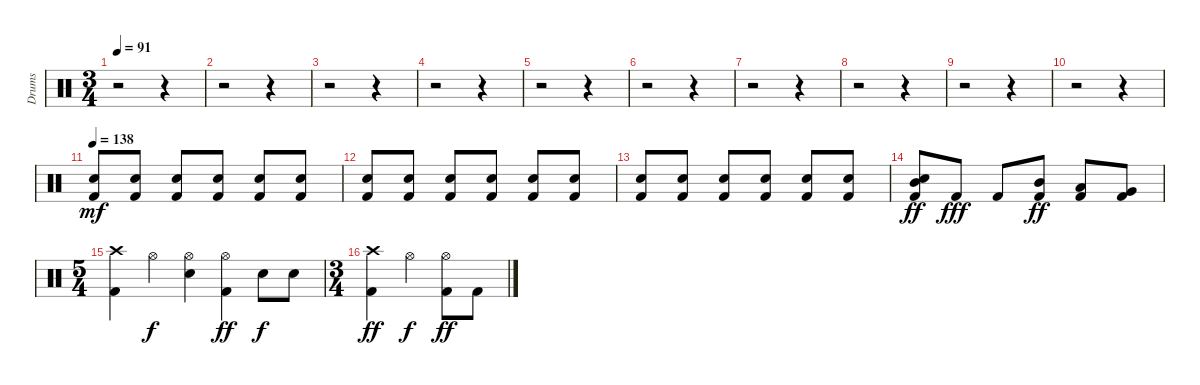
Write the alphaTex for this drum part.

\track ("Drums" "Drums") {instrument percussion}
\staff {score}
\articulation defaults
\ts (3 4)
\tempo 91
\clef neutral
\ks c
r.2{dy mf} r.4 |
r.2 r.4 |
r.2 r.4 |
r.2 r.4 |
r.2 r.4 |
r.2 r.4 |
r.2 r.4 |
r.2 r.4 |
r.2 r.4 |
r.2 r.4{volume 0} |
\tempo 138
("Kick (hit) 2" "Electric Snare (hit)").8{volume 13} ("Kick (hit) 2" "Electric Snare (hit)").8 ("Kick (hit) 2" "Electric Snare (hit)").8 ("Kick (hit) 2" "Electric Snare (hit)").8 ("Kick (hit) 2" "Electric Snare (hit)").8 ("Kick (hit) 2" "Electric Snare (hit)").8 |
("Kick (hit) 2" "Electric Snare (hit)").8 ("Kick (hit) 2" "Electric Snare (hit)").8 ("Kick (hit) 2" "Electric Snare (hit)").8 ("Kick (hit) 2" "Electric Snare (hit)").8 ("Kick (hit) 2" "Electric Snare (hit)").8 ("Kick (hit) 2" "Electric Snare (hit)").8 |
("Kick (hit) 2" "Electric Snare (hit)").8 ("Kick (hit) 2" "Electric Snare (hit)").8 ("Kick (hit) 2" "Electric Snare (hit)").8 ("Kick (hit) 2" "Electric Snare (hit)").8 ("Kick (hit) 2" "Electric Snare (hit)").8 ("Kick (hit) 2" "Electric Snare (hit)").8 |
("Kick (hit) 2" "Electric Snare (hit)" "Mid Tom (hit)").8{dy ff} "Kick (hit) 2".8{dy fff} "Kick (hit) 2".8 ("Kick (hit) 2" "Mid Tom (hit)").8{dy ff} ("Kick (hit) 2" "Low Tom (hit)").8 ("Kick (hit) 2" "Very Low Tom (hit)").8 |
\ts (5 4)
("Kick (hit) 2" "Crash high (hit)").4 "Hi-Hat (open)".4{dy f} ("Electric Snare (hit)" "Hi-Hat (open)").4 ("Kick (hit) 2" "Hi-Hat (open)").4{dy ff} "Electric Snare (hit)".8{dy f} "Electric Snare (hit)".8 |
\ts (3 4)
("Kick (hit) 2" "Crash high (hit)").4{dy ff} "Hi-Hat (open)".4{dy f} ("Kick (hit) 2" "Hi-Hat (open)").8{dy ff} "Kick (hit) 2".8
